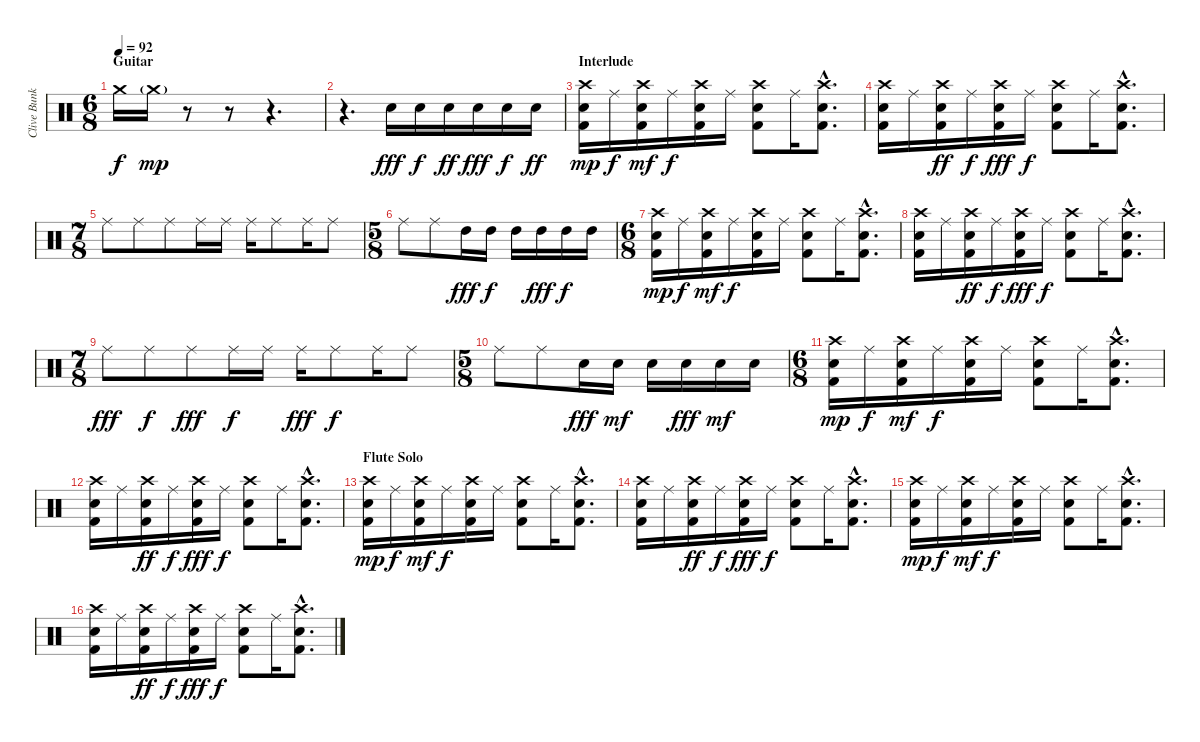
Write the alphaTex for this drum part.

\track ("Clive Bunker (Drums)" "Clive Bunk") {instrument percussion}
\staff {score}
\articulation defaults
\ts (6 8)
\section ("" "Guitar")
\tempo 92
\clef neutral
\ks c "Crash medium (hit)".16{dy f} "Crash medium (hit)"{g}.16{dy mp}
r.8 r.8 r.4{d} |
r.4{d} "Electric Snare (hit)".16{dy fff} "Electric Snare (hit)".16{dy f} "Electric Snare (hit)".16{dy ff} "Electric Snare (hit)".16{dy fff} "Electric Snare (hit)".16{dy f} "Electric Snare (hit)".16{dy ff} |
\section ("" "Interlude")
("Crash high (hit)" "Electric Snare (hit)" "Kick (hit) 2").16{dy mp} "Ride (middle)".16{dy f} ("Crash high (hit)" "Electric Snare (hit)" "Kick (hit) 2").16{dy mf} "Ride (middle)".16{dy f} ("Crash high (hit)" "Electric Snare (hit)" "Kick (hit) 2").16 "Ride (middle)".16 ("Crash high (hit)" "Electric Snare (hit)" "Kick (hit) 2").8 "Ride (middle)".16 ("Crash high (hit)"{hac} "Electric Snare (hit)"{hac} "Kick (hit) 2"{hac}).8{d} |
("Crash high (hit)" "Electric Snare (hit)" "Kick (hit) 2").16 "Ride (middle)".16 ("Crash high (hit)" "Electric Snare (hit)" "Kick (hit) 2").16{dy ff} "Ride (middle)".16{dy f} ("Crash high (hit)" "Electric Snare (hit)" "Kick (hit) 2").16{dy fff} "Ride (middle)".16{dy f} ("Crash high (hit)" "Electric Snare (hit)" "Kick (hit) 2").8 "Ride (middle)".16 ("Crash high (hit)"{hac} "Electric Snare (hit)"{hac} "Kick (hit) 2"{hac}).8{d} |
\ts (7 8)
"Ride (middle)".8 "Ride (middle)".8 "Ride (middle)".8 "Ride (middle)".16 "Ride (middle)".16 "Ride (middle)".16 "Ride (middle)".8 "Ride (middle)".16 "Ride (middle)".8 |
\ts (5 8)
"Ride (middle)".8 "Ride (middle)".8 "High Tom (hit)".16{dy fff} "High Tom (hit)".16{dy f} "High Tom (hit)".16 "High Tom (hit)".16{dy fff} "High Tom (hit)".16{dy f} "High Tom (hit)".16 |
\ts (6 8)
("Crash high (hit)" "Electric Snare (hit)" "Kick (hit) 2").16{dy mp} "Ride (middle)".16{dy f} ("Crash high (hit)" "Electric Snare (hit)" "Kick (hit) 2").16{dy mf} "Ride (middle)".16{dy f} ("Crash high (hit)" "Electric Snare (hit)" "Kick (hit) 2").16 "Ride (middle)".16 ("Crash high (hit)" "Electric Snare (hit)" "Kick (hit) 2").8 "Ride (middle)".16 ("Crash high (hit)"{hac} "Electric Snare (hit)"{hac} "Kick (hit) 2"{hac}).8{d} |
("Crash high (hit)" "Electric Snare (hit)" "Kick (hit) 2").16 "Ride (middle)".16 ("Crash high (hit)" "Electric Snare (hit)" "Kick (hit) 2").16{dy ff} "Ride (middle)".16{dy f} ("Crash high (hit)" "Electric Snare (hit)" "Kick (hit) 2").16{dy fff} "Ride (middle)".16{dy f} ("Crash high (hit)" "Electric Snare (hit)" "Kick (hit) 2").8 "Ride (middle)".16 ("Crash high (hit)"{hac} "Electric Snare (hit)"{hac} "Kick (hit) 2"{hac}).8{d} |
\ts (7 8)
"Ride (middle)".8{dy fff} "Ride (middle)".8{dy f} "Ride (middle)".8{dy fff} "Ride (middle)".16{dy f} "Ride (middle)".16 "Ride (middle)".16{dy fff} "Ride (middle)".8{dy f} "Ride (middle)".16 "Ride (middle)".8 |
\ts (5 8)
"Ride (middle)".8 "Ride (middle)".8 "Electric Snare (hit)".16{dy fff} "Electric Snare (hit)".16{dy mf} "Electric Snare (hit)".16 "Electric Snare (hit)".16{dy fff} "Electric Snare (hit)".16{dy mf} "Electric Snare (hit)".16 |
\ts (6 8)
("Crash high (hit)" "Electric Snare (hit)" "Kick (hit) 2").16{dy mp} "Ride (middle)".16{dy f} ("Crash high (hit)" "Electric Snare (hit)" "Kick (hit) 2").16{dy mf} "Ride (middle)".16{dy f} ("Crash high (hit)" "Electric Snare (hit)" "Kick (hit) 2").16 "Ride (middle)".16 ("Crash high (hit)" "Electric Snare (hit)" "Kick (hit) 2").8 "Ride (middle)".16 ("Crash high (hit)"{hac} "Electric Snare (hit)"{hac} "Kick (hit) 2"{hac}).8{d} |
("Crash high (hit)" "Electric Snare (hit)" "Kick (hit) 2").16 "Ride (middle)".16 ("Crash high (hit)" "Electric Snare (hit)" "Kick (hit) 2").16{dy ff} "Ride (middle)".16{dy f} ("Crash high (hit)" "Electric Snare (hit)" "Kick (hit) 2").16{dy fff} "Ride (middle)".16{dy f} ("Crash high (hit)" "Electric Snare (hit)" "Kick (hit) 2").8 "Ride (middle)".16 ("Crash high (hit)"{hac} "Electric Snare (hit)"{hac} "Kick (hit) 2"{hac}).8{d} |
\section ("" "Flute Solo")
("Crash high (hit)" "Electric Snare (hit)" "Kick (hit) 2").16{dy mp} "Ride (middle)".16{dy f} ("Crash high (hit)" "Electric Snare (hit)" "Kick (hit) 2").16{dy mf} "Ride (middle)".16{dy f} ("Crash high (hit)" "Electric Snare (hit)" "Kick (hit) 2").16 "Ride (middle)".16 ("Crash high (hit)" "Electric Snare (hit)" "Kick (hit) 2").8 "Ride (middle)".16 ("Crash high (hit)"{hac} "Electric Snare (hit)"{hac} "Kick (hit) 2"{hac}).8{d} |
("Crash high (hit)" "Electric Snare (hit)" "Kick (hit) 2").16 "Ride (middle)".16 ("Crash high (hit)" "Electric Snare (hit)" "Kick (hit) 2").16{dy ff} "Ride (middle)".16{dy f} ("Crash high (hit)" "Electric Snare (hit)" "Kick (hit) 2").16{dy fff} "Ride (middle)".16{dy f} ("Crash high (hit)" "Electric Snare (hit)" "Kick (hit) 2").8 "Ride (middle)".16 ("Crash high (hit)"{hac} "Electric Snare (hit)"{hac} "Kick (hit) 2"{hac}).8{d} |
("Crash high (hit)" "Electric Snare (hit)" "Kick (hit) 2").16{dy mp} "Ride (middle)".16{dy f} ("Crash high (hit)" "Electric Snare (hit)" "Kick (hit) 2").16{dy mf} "Ride (middle)".16{dy f} ("Crash high (hit)" "Electric Snare (hit)" "Kick (hit) 2").16 "Ride (middle)".16 ("Crash high (hit)" "Electric Snare (hit)" "Kick (hit) 2").8 "Ride (middle)".16 ("Crash high (hit)"{hac} "Electric Snare (hit)"{hac} "Kick (hit) 2"{hac}).8{d} |
("Crash high (hit)" "Electric Snare (hit)" "Kick (hit) 2").16 "Ride (middle)".16 ("Crash high (hit)" "Electric Snare (hit)" "Kick (hit) 2").16{dy ff} "Ride (middle)".16{dy f} ("Crash high (hit)" "Electric Snare (hit)" "Kick (hit) 2").16{dy fff} "Ride (middle)".16{dy f} ("Crash high (hit)" "Electric Snare (hit)" "Kick (hit) 2").8 "Ride (middle)".16 ("Crash high (hit)"{hac} "Electric Snare (hit)"{hac} "Kick (hit) 2"{hac}).8{d}
